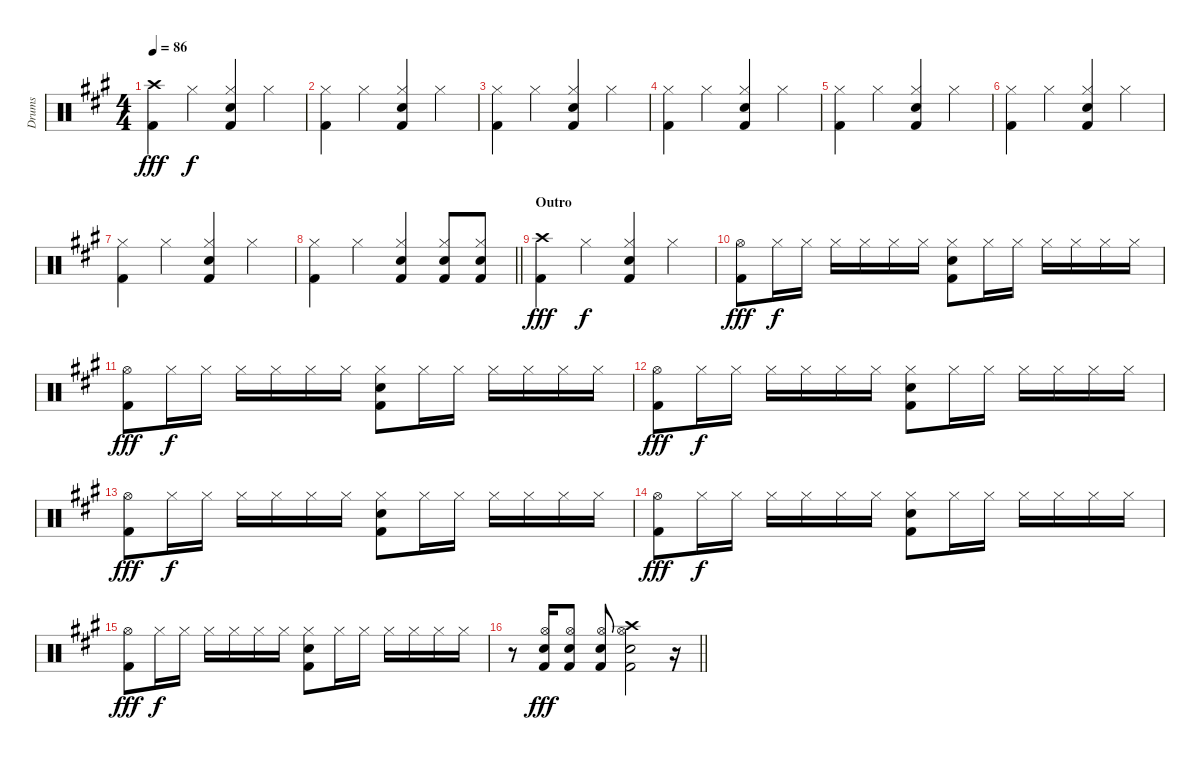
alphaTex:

\track ("Drums" "Drums") {instrument percussion}
\staff {score}
\articulation defaults
\ts (4 4)
\tempo 86
\clef neutral
\ks a
("Crash high (hit)" "Kick (hit) 2").4{dy fff} "Hi-Hat (closed)".4{dy f} ("Hi-Hat (closed)" "Electric Snare (hit)" "Kick (hit) 2").4 "Hi-Hat (closed)".4 |
("Hi-Hat (closed)" "Kick (hit) 2").4 "Hi-Hat (closed)".4 ("Hi-Hat (closed)" "Electric Snare (hit)" "Kick (hit) 2").4 "Hi-Hat (closed)".4 |
("Hi-Hat (closed)" "Kick (hit) 2").4 "Hi-Hat (closed)".4 ("Hi-Hat (closed)" "Electric Snare (hit)" "Kick (hit) 2").4 "Hi-Hat (closed)".4 |
("Hi-Hat (closed)" "Kick (hit) 2").4 "Hi-Hat (closed)".4 ("Hi-Hat (closed)" "Electric Snare (hit)" "Kick (hit) 2").4 "Hi-Hat (closed)".4 |
("Hi-Hat (closed)" "Kick (hit) 2").4 "Hi-Hat (closed)".4 ("Hi-Hat (closed)" "Electric Snare (hit)" "Kick (hit) 2").4 "Hi-Hat (closed)".4 |
("Hi-Hat (closed)" "Kick (hit) 2").4 "Hi-Hat (closed)".4 ("Hi-Hat (closed)" "Electric Snare (hit)" "Kick (hit) 2").4 "Hi-Hat (closed)".4 |
("Hi-Hat (closed)" "Kick (hit) 2").4 "Hi-Hat (closed)".4 ("Hi-Hat (closed)" "Electric Snare (hit)" "Kick (hit) 2").4 "Hi-Hat (closed)".4 |
\barLineRight lightlight
("Hi-Hat (closed)" "Kick (hit) 2").4 "Hi-Hat (closed)".4 ("Hi-Hat (closed)" "Electric Snare (hit)" "Kick (hit) 2").4 ("Hi-Hat (closed)" "Electric Snare (hit)" "Kick (hit) 2").8 ("Hi-Hat (closed)" "Electric Snare (hit)" "Kick (hit) 2").8 |
\section ("" "Outro")
("Crash high (hit)" "Kick (hit) 2").4{dy fff} "Hi-Hat (closed)".4{dy f} ("Hi-Hat (closed)" "Electric Snare (hit)" "Kick (hit) 2").4 "Hi-Hat (closed)".4 |
("Hi-Hat (open)" "Kick (hit) 2").8{dy fff} "Hi-Hat (closed)".16{dy f} "Hi-Hat (closed)".16 "Hi-Hat (closed)".16 "Hi-Hat (closed)".16 "Hi-Hat (closed)".16 "Hi-Hat (closed)".16 ("Hi-Hat (closed)" "Electric Snare (hit)" "Kick (hit) 2").8 "Hi-Hat (closed)".16 "Hi-Hat (closed)".16 "Hi-Hat (closed)".16 "Hi-Hat (closed)".16 "Hi-Hat (closed)".16 "Hi-Hat (closed)".16 |
("Hi-Hat (open)" "Kick (hit) 2").8{dy fff} "Hi-Hat (closed)".16{dy f} "Hi-Hat (closed)".16 "Hi-Hat (closed)".16 "Hi-Hat (closed)".16 "Hi-Hat (closed)".16 "Hi-Hat (closed)".16 ("Hi-Hat (closed)" "Electric Snare (hit)" "Kick (hit) 2").8 "Hi-Hat (closed)".16 "Hi-Hat (closed)".16 "Hi-Hat (closed)".16 "Hi-Hat (closed)".16 "Hi-Hat (closed)".16 "Hi-Hat (closed)".16 |
("Hi-Hat (open)" "Kick (hit) 2").8{dy fff} "Hi-Hat (closed)".16{dy f} "Hi-Hat (closed)".16 "Hi-Hat (closed)".16 "Hi-Hat (closed)".16 "Hi-Hat (closed)".16 "Hi-Hat (closed)".16 ("Hi-Hat (closed)" "Electric Snare (hit)" "Kick (hit) 2").8 "Hi-Hat (closed)".16 "Hi-Hat (closed)".16 "Hi-Hat (closed)".16 "Hi-Hat (closed)".16 "Hi-Hat (closed)".16 "Hi-Hat (closed)".16 |
("Hi-Hat (open)" "Kick (hit) 2").8{dy fff} "Hi-Hat (closed)".16{dy f} "Hi-Hat (closed)".16 "Hi-Hat (closed)".16 "Hi-Hat (closed)".16 "Hi-Hat (closed)".16 "Hi-Hat (closed)".16 ("Hi-Hat (closed)" "Electric Snare (hit)" "Kick (hit) 2").8 "Hi-Hat (closed)".16 "Hi-Hat (closed)".16 "Hi-Hat (closed)".16 "Hi-Hat (closed)".16 "Hi-Hat (closed)".16 "Hi-Hat (closed)".16 |
("Hi-Hat (open)" "Kick (hit) 2").8{dy fff} "Hi-Hat (closed)".16{dy f} "Hi-Hat (closed)".16 "Hi-Hat (closed)".16 "Hi-Hat (closed)".16 "Hi-Hat (closed)".16 "Hi-Hat (closed)".16 ("Hi-Hat (closed)" "Electric Snare (hit)" "Kick (hit) 2").8 "Hi-Hat (closed)".16 "Hi-Hat (closed)".16 "Hi-Hat (closed)".16 "Hi-Hat (closed)".16 "Hi-Hat (closed)".16 "Hi-Hat (closed)".16 |
("Hi-Hat (open)" "Kick (hit) 2").8{dy fff} "Hi-Hat (closed)".16{dy f} "Hi-Hat (closed)".16 "Hi-Hat (closed)".16 "Hi-Hat (closed)".16 "Hi-Hat (closed)".16 "Hi-Hat (closed)".16 ("Hi-Hat (closed)" "Electric Snare (hit)" "Kick (hit) 2").8 "Hi-Hat (closed)".16 "Hi-Hat (closed)".16 "Hi-Hat (closed)".16 "Hi-Hat (closed)".16 "Hi-Hat (closed)".16 "Hi-Hat (closed)".16 |
\barLineRight lightlight
r.8 ("Hi-Hat (open)" "Snare (hit) 2" "Kick (hit) 2").16{dy fff} ("Hi-Hat (open)" "Snare (hit) 2" "Kick (hit) 2").8 ("Hi-Hat (open)" "Snare (hit) 2" "Kick (hit) 2").8 ("Crash high (hit)" "Hi-Hat (open)" "Snare (hit) 2" "Kick (hit) 2").2 r.16
